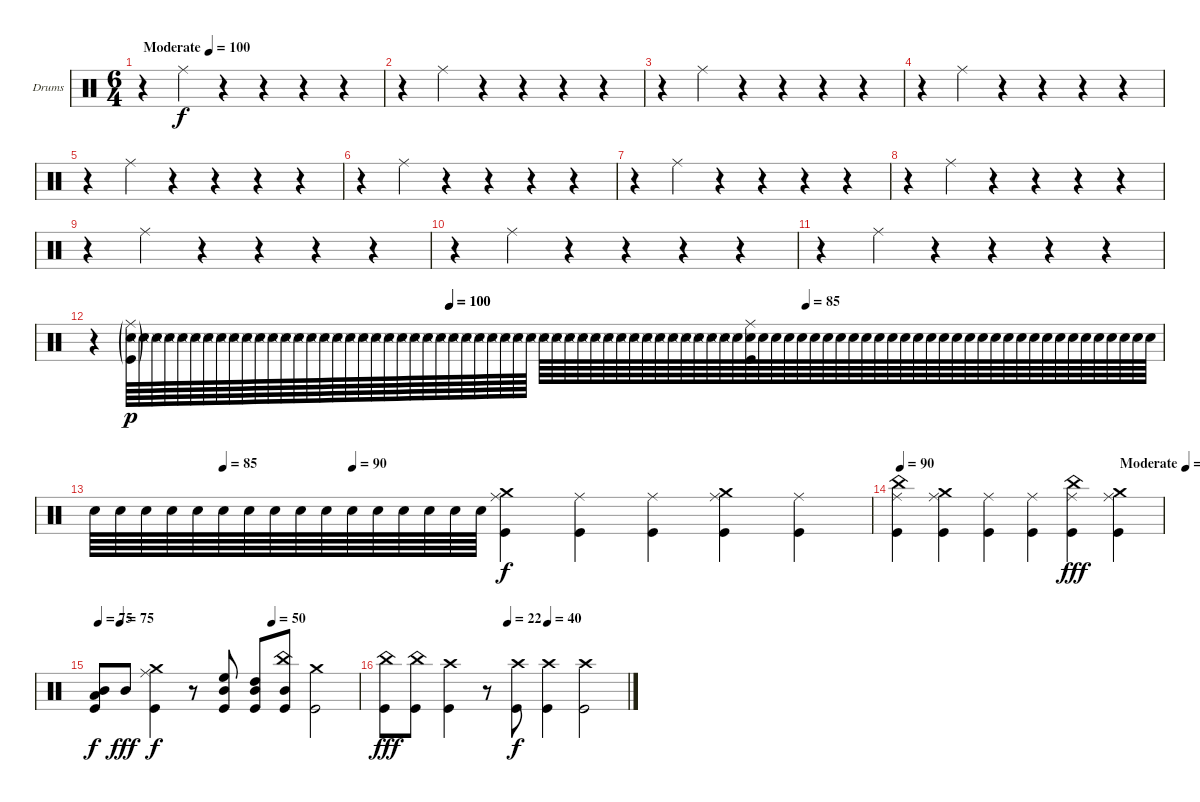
\bracketExtendMode groupsimilarinstruments
\firstSystemTrackNameOrientation horizontal
\otherSystemsTrackNameOrientation horizontal
\track ("Drumkit" "Drums") {instrument percussion}
\staff {score}
\articulation defaults
\ts (6 4)
\beaming (8 6 6)
\tempo (100 "Moderate")
\clef neutral
\ks c
r.4{dy f} "Ride (middle)".4 r.4 r.4 r.4 r.4 |
r.4 "Ride (middle)".4 r.4 r.4 r.4 r.4 |
r.4 "Ride (middle)".4 r.4 r.4 r.4 r.4 |
r.4 "Ride (middle)".4 r.4 r.4 r.4 r.4 |
r.4 "Ride (middle)".4 r.4 r.4 r.4 r.4 |
r.4 "Ride (middle)".4 r.4 r.4 r.4 r.4 |
r.4 "Ride (middle)".4 r.4 r.4 r.4 r.4 |
r.4 "Ride (middle)".4 r.4 r.4 r.4 r.4 |
r.4 "Ride (middle)".4 r.4 r.4 r.4 r.4 |
r.4 "Ride (middle)".4 r.4 r.4 r.4 r.4 |
r.4 "Ride (middle)".4 r.4 r.4 r.4 r.4 |
\tempo (100 0.333233)
\tempo (100 0.333333)
\tempo (85 0.666667)
r.4 ("Kick (hit)"{g} "Ride (middle)"{g} "Snare (hit) 2"{g}).64{dy p} "Snare (hit) 2"{g}.64 "Snare (hit) 2"{g}.64 "Snare (hit) 2"{g}.64 "Snare (hit) 2"{g}.64 "Snare (hit) 2"{g}.64 "Snare (hit) 2"{g}.64 "Snare (hit) 2"{g}.64 "Snare (hit) 2"{g}.64 "Snare (hit) 2"{g}.64 "Snare (hit) 2"{g}.64 "Snare (hit) 2"{g}.64 "Snare (hit) 2"{g}.64 "Snare (hit) 2"{g}.64 "Snare (hit) 2"{g}.64 "Snare (hit) 2"{g}.64 "Snare (hit) 2"{g}.64 "Snare (hit) 2"{g}.64 "Snare (hit) 2"{g}.64 "Snare (hit) 2"{g}.64 "Snare (hit) 2"{g}.64 "Snare (hit) 2"{g}.64 "Snare (hit) 2"{g}.64 "Snare (hit) 2"{g}.64 "Snare (hit) 2"{g}.64 "Snare (hit) 2"{g}.64 "Snare (hit) 2"{g}.64 "Snare (hit) 2"{g}.64 "Snare (hit) 2"{g}.64 "Snare (hit) 2"{g}.64 "Snare (hit) 2"{g}.64 "Snare (hit) 2"{g}.64 "Snare (hit) 2"{g}.64 "Snare (hit) 2"{g}.64 "Snare (hit) 2"{g}.64 "Snare (hit) 2"{g}.64 "Snare (hit) 2"{g}.64 "Snare (hit) 2"{g}.64 "Snare (hit) 2"{g}.64 "Snare (hit) 2"{g}.64 "Snare (hit) 2"{g}.64 "Snare (hit) 2"{g}.64 "Snare (hit) 2"{g}.64 "Snare (hit) 2"{g}.64 "Snare (hit) 2"{g}.64 "Snare (hit) 2"{g}.64 "Snare (hit) 2"{g}.64 "Snare (hit) 2"{g}.64 ("Kick (hit)" "Ride (middle)" "Snare (hit) 2").64 "Snare (hit) 2".64 "Snare (hit) 2".64 "Snare (hit) 2".64 "Snare (hit) 2".64 "Snare (hit) 2".64 "Snare (hit) 2".64 "Snare (hit) 2".64 "Snare (hit) 2".64 "Snare (hit) 2".64 "Snare (hit) 2".64 "Snare (hit) 2".64 "Snare (hit) 2".64 "Snare (hit) 2".64 "Snare (hit) 2".64 "Snare (hit) 2".64 "Snare (hit) 2".64 "Snare (hit) 2".64 "Snare (hit) 2".64 "Snare (hit) 2".64 "Snare (hit) 2".64 "Snare (hit) 2".64 "Snare (hit) 2".64 "Snare (hit) 2".64 "Snare (hit) 2".64 "Snare (hit) 2".64 "Snare (hit) 2".64 "Snare (hit) 2".64 "Snare (hit) 2".64 "Snare (hit) 2".64 "Snare (hit) 2".64 "Snare (hit) 2".64 |
\tempo (85 0.166667)
\tempo (90 0.333333)
"Snare (hit) 2".64 "Snare (hit) 2".64 "Snare (hit) 2".64 "Snare (hit) 2".64 "Snare (hit) 2".64 "Snare (hit) 2".64 "Snare (hit) 2".64 "Snare (hit) 2".64 "Snare (hit) 2".64 "Snare (hit) 2".64 "Snare (hit) 2".64 "Snare (hit) 2".64 "Snare (hit) 2".64 "Snare (hit) 2".64 "Snare (hit) 2".64 "Snare (hit) 2".64 ("Kick (hit)" "Ride (middle)" "Crash medium (hit)").4{dy f} ("Kick (hit)" "Ride (middle)").4 ("Kick (hit)" "Ride (middle)").4 ("Kick (hit)" "Ride (middle)" "Crash medium (hit)").4 ("Kick (hit)" "Ride (middle)").4 |
\tempo 90
\tempo (30 "Moderate" 0.833333)
("Kick (hit)" "Ride (middle)" "China (hit)").4 ("Kick (hit)" "Ride (middle)" "Crash medium (hit)").4 ("Kick (hit)" "Ride (middle)").4 ("Kick (hit)" "Ride (middle)").4 ("Kick (hit)" "Ride (middle)" "China (hit)").4{dy fff} ("Kick (hit)" "Ride (middle)" "Crash medium (hit)").4 |
\tempo 75
\tempo (75 0.0833333)
\tempo (50 0.666667)
("Kick (hit)" "Low Tom (hit)" "Mid Tom (hit)").8{dy f} "Mid Tom (hit)".8{dy fff} ("Kick (hit)" "Ride (middle)" "Crash medium (hit)").4{dy f} r.8 ("Kick (hit)" "Mid Tom (hit)" "High Floor Tom (hit)").8 ("Kick (hit)" "Mid Tom (hit)" "High Tom (hit)").8 ("Kick (hit)" "Mid Tom (hit)" "China (hit)").8 ("Kick (hit)" "Crash medium (hit)").2 |
\tempo (22 0.5)
\tempo (40 0.666667)
("Kick (hit)" "China (hit)").8{dy fff} ("Kick (hit)" "China (hit)").8 ("Kick (hit)" "Crash high (hit)").4 r.8 ("Kick (hit)" "Crash high (hit)").8{dy f} ("Kick (hit)" "Crash high (hit)").4 ("Kick (hit)" "Crash high (hit)").2
